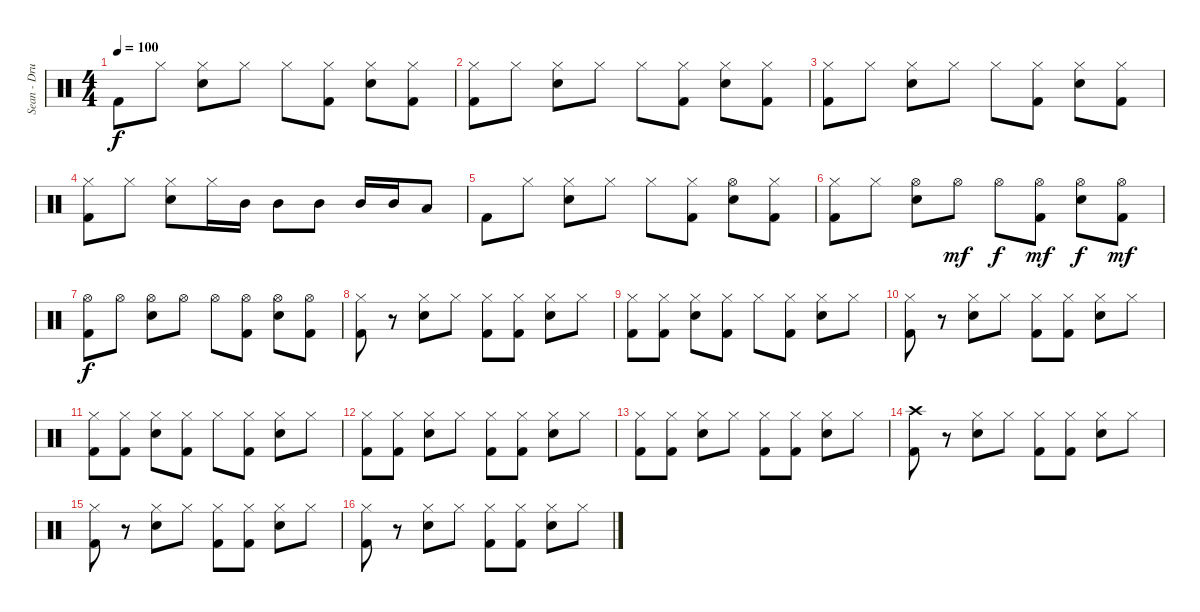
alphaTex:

\track ("Sean - Drums" "Sean - Dru") {instrument percussion}
\staff {score}
\articulation defaults
\ts (4 4)
\tempo 100
\clef neutral
\ks c "Kick (hit) 2".8{dy f} "Hi-Hat (closed)".8
("Hi-Hat (closed)" "Electric Snare (hit)").8 "Hi-Hat (closed)".8 "Hi-Hat (closed)".8 ("Hi-Hat (closed)" "Kick (hit) 2").8 ("Hi-Hat (closed)" "Electric Snare (hit)").8 ("Hi-Hat (closed)" "Kick (hit) 2").8 |
("Hi-Hat (closed)" "Kick (hit) 2").8 "Hi-Hat (closed)".8 ("Hi-Hat (closed)" "Electric Snare (hit)").8 "Hi-Hat (closed)".8 "Hi-Hat (closed)".8 ("Hi-Hat (closed)" "Kick (hit) 2").8 ("Hi-Hat (closed)" "Electric Snare (hit)").8 ("Hi-Hat (closed)" "Kick (hit) 2").8 |
("Hi-Hat (closed)" "Kick (hit) 2").8 "Hi-Hat (closed)".8 ("Hi-Hat (closed)" "Electric Snare (hit)").8 "Hi-Hat (closed)".8 "Hi-Hat (closed)".8 ("Hi-Hat (closed)" "Kick (hit) 2").8 ("Hi-Hat (closed)" "Electric Snare (hit)").8 ("Hi-Hat (closed)" "Kick (hit) 2").8 |
("Hi-Hat (closed)" "Kick (hit) 2").8 "Hi-Hat (closed)".8 ("Hi-Hat (closed)" "Electric Snare (hit)").8 "Hi-Hat (closed)".16 "Mid Tom (hit)".16 "Mid Tom (hit)".8 "Mid Tom (hit)".8 "Mid Tom (hit)".16 "Mid Tom (hit)".16 "Low Tom (hit)".8 |
"Kick (hit) 2".8 "Hi-Hat (closed)".8 ("Hi-Hat (closed)" "Electric Snare (hit)").8 "Hi-Hat (closed)".8 "Hi-Hat (closed)".8 ("Hi-Hat (closed)" "Kick (hit) 2").8 ("Hi-Hat (open)" "Electric Snare (hit)").8 ("Hi-Hat (closed)" "Kick (hit) 2").8 |
("Hi-Hat (closed)" "Kick (hit) 2").8 "Hi-Hat (closed)".8 ("Hi-Hat (open)" "Electric Snare (hit)").8 "Hi-Hat (open)".8{dy mf} "Hi-Hat (open)".8{dy f} ("Hi-Hat (open)" "Kick (hit) 2").8{dy mf} ("Hi-Hat (open)" "Electric Snare (hit)").8{dy f} ("Hi-Hat (open)" "Kick (hit) 2").8{dy mf} |
("Hi-Hat (open)" "Kick (hit) 2").8{dy f} "Hi-Hat (open)".8 ("Hi-Hat (open)" "Electric Snare (hit)").8 "Hi-Hat (open)".8 "Hi-Hat (open)".8 ("Hi-Hat (open)" "Kick (hit) 2").8 ("Hi-Hat (open)" "Electric Snare (hit)").8 ("Hi-Hat (open)" "Kick (hit) 2").8 |
("Hi-Hat (closed)" "Kick (hit) 2").8 r.8 ("Hi-Hat (closed)" "Electric Snare (hit)").8 "Hi-Hat (closed)".8 ("Hi-Hat (closed)" "Kick (hit) 2").8 ("Hi-Hat (closed)" "Kick (hit) 2").8 ("Hi-Hat (closed)" "Electric Snare (hit)").8 "Hi-Hat (closed)".8 |
("Hi-Hat (closed)" "Kick (hit) 2").8 ("Hi-Hat (closed)" "Kick (hit) 2").8 ("Hi-Hat (closed)" "Electric Snare (hit)").8 ("Hi-Hat (closed)" "Kick (hit) 2").8 "Hi-Hat (closed)".8 ("Hi-Hat (closed)" "Kick (hit) 2").8 ("Hi-Hat (closed)" "Electric Snare (hit)").8 "Hi-Hat (closed)".8 |
("Hi-Hat (closed)" "Kick (hit) 2").8 r.8 ("Hi-Hat (closed)" "Electric Snare (hit)").8 "Hi-Hat (closed)".8 ("Hi-Hat (closed)" "Kick (hit) 2").8 ("Hi-Hat (closed)" "Kick (hit) 2").8 ("Hi-Hat (closed)" "Electric Snare (hit)").8 "Hi-Hat (closed)".8 |
("Hi-Hat (closed)" "Kick (hit) 2").8 ("Hi-Hat (closed)" "Kick (hit) 2").8 ("Hi-Hat (closed)" "Electric Snare (hit)").8 ("Hi-Hat (closed)" "Kick (hit) 2").8 "Hi-Hat (closed)".8 ("Hi-Hat (closed)" "Kick (hit) 2").8 ("Hi-Hat (closed)" "Electric Snare (hit)").8 "Hi-Hat (closed)".8 |
("Hi-Hat (closed)" "Kick (hit) 2").8 ("Hi-Hat (closed)" "Kick (hit) 2").8 ("Hi-Hat (closed)" "Electric Snare (hit)").8 "Hi-Hat (closed)".8 ("Hi-Hat (closed)" "Kick (hit) 2").8 ("Hi-Hat (closed)" "Kick (hit) 2").8 ("Hi-Hat (closed)" "Electric Snare (hit)").8 "Hi-Hat (closed)".8 |
("Hi-Hat (closed)" "Kick (hit) 2").8 ("Hi-Hat (closed)" "Kick (hit) 2").8 ("Hi-Hat (closed)" "Electric Snare (hit)").8 "Hi-Hat (closed)".8 ("Hi-Hat (closed)" "Kick (hit) 2").8 ("Hi-Hat (closed)" "Kick (hit) 2").8 ("Hi-Hat (closed)" "Electric Snare (hit)").8 "Hi-Hat (closed)".8 |
("Crash high (hit)" "Kick (hit) 2").8 r.8 ("Hi-Hat (closed)" "Electric Snare (hit)").8 "Hi-Hat (closed)".8 ("Hi-Hat (closed)" "Kick (hit) 2").8 ("Hi-Hat (closed)" "Kick (hit) 2").8 ("Hi-Hat (closed)" "Electric Snare (hit)").8 "Hi-Hat (closed)".8 |
("Hi-Hat (closed)" "Kick (hit) 2").8 r.8 ("Hi-Hat (closed)" "Electric Snare (hit)").8 "Hi-Hat (closed)".8 ("Hi-Hat (closed)" "Kick (hit) 2").8 ("Hi-Hat (closed)" "Kick (hit) 2").8 ("Hi-Hat (closed)" "Electric Snare (hit)").8 "Hi-Hat (closed)".8 |
("Hi-Hat (closed)" "Kick (hit) 2").8 r.8 ("Hi-Hat (closed)" "Electric Snare (hit)").8 "Hi-Hat (closed)".8 ("Hi-Hat (closed)" "Kick (hit) 2").8 ("Hi-Hat (closed)" "Kick (hit) 2").8 ("Hi-Hat (closed)" "Electric Snare (hit)").8 "Hi-Hat (closed)".8
